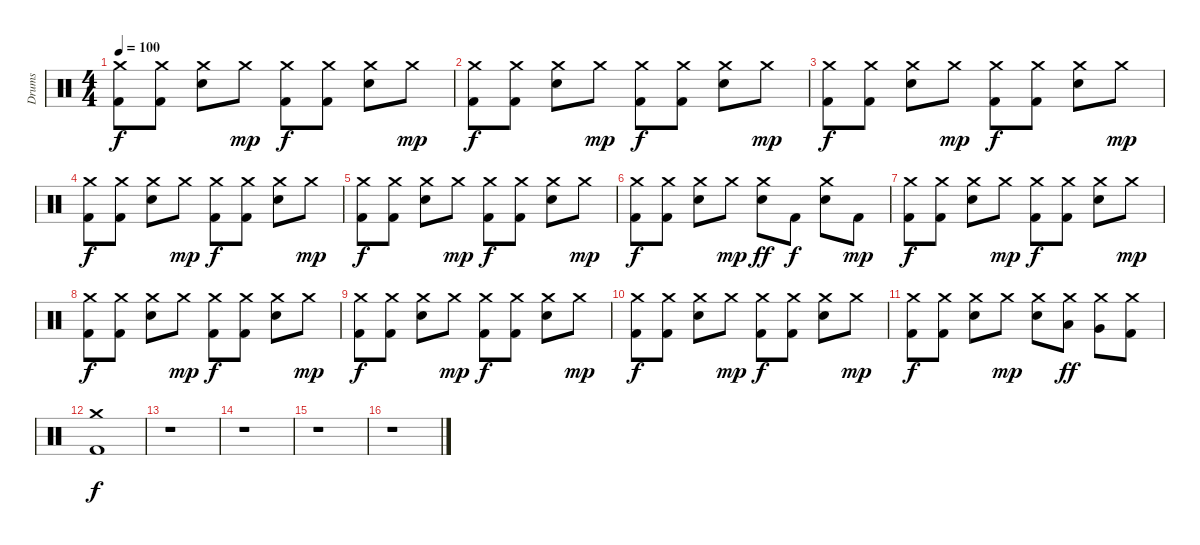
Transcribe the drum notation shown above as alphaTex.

\track ("Drums" "Drums") {instrument percussion}
\staff {score}
\articulation defaults
\ts (4 4)
\tempo 100
\clef neutral
\ks c
("Crash medium (hit)" "Kick (hit) 2").8{dy f} ("Crash medium (hit)" "Kick (hit) 2").8 ("Crash medium (hit)" "Electric Snare (hit)").8 "Crash medium (hit)".8{dy mp} ("Crash medium (hit)" "Kick (hit) 2").8{dy f} ("Crash medium (hit)" "Kick (hit) 2").8 ("Crash medium (hit)" "Electric Snare (hit)").8 "Crash medium (hit)".8{dy mp} |
("Crash medium (hit)" "Kick (hit) 2").8{dy f} ("Crash medium (hit)" "Kick (hit) 2").8 ("Crash medium (hit)" "Electric Snare (hit)").8 "Crash medium (hit)".8{dy mp} ("Crash medium (hit)" "Kick (hit) 2").8{dy f} ("Crash medium (hit)" "Kick (hit) 2").8 ("Crash medium (hit)" "Electric Snare (hit)").8 "Crash medium (hit)".8{dy mp} |
("Crash medium (hit)" "Kick (hit) 2").8{dy f} ("Crash medium (hit)" "Kick (hit) 2").8 ("Crash medium (hit)" "Electric Snare (hit)").8 "Crash medium (hit)".8{dy mp} ("Crash medium (hit)" "Kick (hit) 2").8{dy f} ("Crash medium (hit)" "Kick (hit) 2").8 ("Crash medium (hit)" "Electric Snare (hit)").8 "Crash medium (hit)".8{dy mp} |
("Crash medium (hit)" "Kick (hit) 2").8{dy f} ("Crash medium (hit)" "Kick (hit) 2").8 ("Crash medium (hit)" "Electric Snare (hit)").8 "Crash medium (hit)".8{dy mp} ("Crash medium (hit)" "Kick (hit) 2").8{dy f} ("Crash medium (hit)" "Kick (hit) 2").8 ("Crash medium (hit)" "Electric Snare (hit)").8 "Crash medium (hit)".8{dy mp} |
("Crash medium (hit)" "Kick (hit) 2").8{dy f} ("Crash medium (hit)" "Kick (hit) 2").8 ("Crash medium (hit)" "Electric Snare (hit)").8 "Crash medium (hit)".8{dy mp} ("Crash medium (hit)" "Kick (hit) 2").8{dy f} ("Crash medium (hit)" "Kick (hit) 2").8 ("Crash medium (hit)" "Electric Snare (hit)").8 "Crash medium (hit)".8{dy mp} |
("Crash medium (hit)" "Kick (hit) 2").8{dy f} ("Crash medium (hit)" "Kick (hit) 2").8 ("Crash medium (hit)" "Electric Snare (hit)").8 "Crash medium (hit)".8{dy mp} ("Crash medium (hit)" "Electric Snare (hit)").8{dy ff} "Kick (hit) 2".8{dy f} ("Crash medium (hit)" "Electric Snare (hit)").8 "Kick (hit) 2".8{dy mp} |
("Crash medium (hit)" "Kick (hit) 2").8{dy f} ("Crash medium (hit)" "Kick (hit) 2").8 ("Crash medium (hit)" "Electric Snare (hit)").8 "Crash medium (hit)".8{dy mp} ("Crash medium (hit)" "Kick (hit) 2").8{dy f} ("Crash medium (hit)" "Kick (hit) 2").8 ("Crash medium (hit)" "Electric Snare (hit)").8 "Crash medium (hit)".8{dy mp} |
("Crash medium (hit)" "Kick (hit) 2").8{dy f} ("Crash medium (hit)" "Kick (hit) 2").8 ("Crash medium (hit)" "Electric Snare (hit)").8 "Crash medium (hit)".8{dy mp} ("Crash medium (hit)" "Kick (hit) 2").8{dy f} ("Crash medium (hit)" "Kick (hit) 2").8 ("Crash medium (hit)" "Electric Snare (hit)").8 "Crash medium (hit)".8{dy mp} |
("Crash medium (hit)" "Kick (hit) 2").8{dy f} ("Crash medium (hit)" "Kick (hit) 2").8 ("Crash medium (hit)" "Electric Snare (hit)").8 "Crash medium (hit)".8{dy mp} ("Crash medium (hit)" "Kick (hit) 2").8{dy f} ("Crash medium (hit)" "Kick (hit) 2").8 ("Crash medium (hit)" "Electric Snare (hit)").8 "Crash medium (hit)".8{dy mp} |
("Crash medium (hit)" "Kick (hit) 2").8{dy f} ("Crash medium (hit)" "Kick (hit) 2").8 ("Crash medium (hit)" "Electric Snare (hit)").8 "Crash medium (hit)".8{dy mp} ("Crash medium (hit)" "Kick (hit) 2").8{dy f} ("Crash medium (hit)" "Kick (hit) 2").8 ("Crash medium (hit)" "Electric Snare (hit)").8 "Crash medium (hit)".8{dy mp} |
("Crash medium (hit)" "Kick (hit) 2").8{dy f} ("Crash medium (hit)" "Kick (hit) 2").8 ("Crash medium (hit)" "Electric Snare (hit)").8 "Crash medium (hit)".8{dy mp} ("Crash medium (hit)" "Electric Snare (hit)").8 ("Crash medium (hit)" "Low Tom (hit)").8{dy ff} ("Crash medium (hit)" "Very Low Tom (hit)").8 ("Crash medium (hit)" "Kick (hit) 2").8 |
("Crash medium (hit)" "Kick (hit) 2").1{dy f} |
r.1 |
r.1 |
r.1 |
r.1
